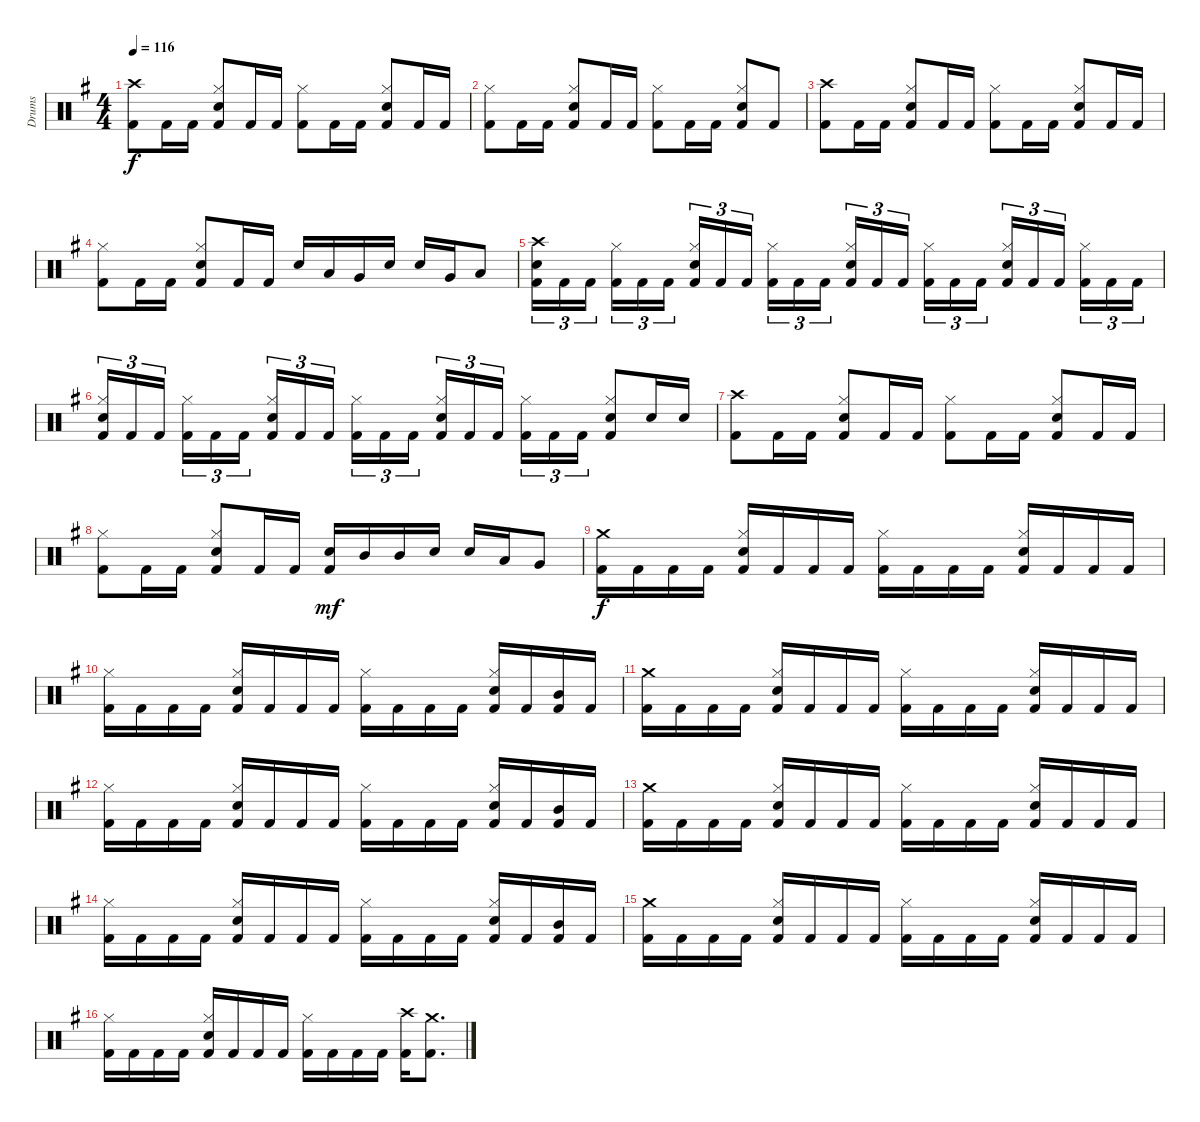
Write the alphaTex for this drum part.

\track ("Drums" "Drums") {instrument percussion}
\staff {score}
\articulation defaults
\ts (4 4)
\tempo 116
\clef neutral
\ks eminor
("Crash high (hit)" "Kick (hit) 2").8{dy f} "Kick (hit) 2".16 "Kick (hit) 2".16 ("Hi-Hat (closed)" "Snare (hit) 2" "Kick (hit) 2").8 "Kick (hit) 2".16 "Kick (hit) 2".16 ("Hi-Hat (closed)" "Kick (hit) 2").8 "Kick (hit) 2".16 "Kick (hit) 2".16 ("Hi-Hat (closed)" "Snare (hit) 2" "Kick (hit) 2").8 "Kick (hit) 2".16 "Kick (hit) 2".16 |
("Hi-Hat (closed)" "Kick (hit) 2").8 "Kick (hit) 2".16 "Kick (hit) 2".16 ("Hi-Hat (closed)" "Snare (hit) 2" "Kick (hit) 2").8 "Kick (hit) 2".16 "Kick (hit) 2".16 ("Hi-Hat (closed)" "Kick (hit) 2").8 "Kick (hit) 2".16 "Kick (hit) 2".16 ("Hi-Hat (closed)" "Snare (hit) 2" "Kick (hit) 2").8 "Kick (hit) 2".8 |
("Crash high (hit)" "Kick (hit) 2").8 "Kick (hit) 2".16 "Kick (hit) 2".16 ("Hi-Hat (closed)" "Snare (hit) 2" "Kick (hit) 2").8 "Kick (hit) 2".16 "Kick (hit) 2".16 ("Hi-Hat (closed)" "Kick (hit) 2").8 "Kick (hit) 2".16 "Kick (hit) 2".16 ("Hi-Hat (closed)" "Snare (hit) 2" "Kick (hit) 2").8 "Kick (hit) 2".16 "Kick (hit) 2".16 |
("Hi-Hat (closed)" "Kick (hit) 2").8 "Kick (hit) 2".16 "Kick (hit) 2".16 ("Hi-Hat (closed)" "Snare (hit) 2" "Kick (hit) 2").8 "Kick (hit) 2".16 "Kick (hit) 2".16 "Snare (hit) 2".16 "Low Tom (hit)".16 "Very Low Tom (hit)".16 "Snare (hit) 2".16 "Snare (hit) 2".16 "Very Low Tom (hit)".16 "Low Floor Tom (hit)".8 |
("Crash high (hit)" "Snare (hit) 2" "Kick (hit) 2").16{tu (3 2)} "Kick (hit) 2".16{tu (3 2)} "Kick (hit) 2".16{tu (3 2) beam splitsecondary} ("Hi-Hat (closed)" "Kick (hit) 2").16{tu (3 2)} "Kick (hit) 2".16{tu (3 2)} "Kick (hit) 2".16{tu (3 2)} ("Hi-Hat (closed)" "Snare (hit) 2" "Kick (hit) 2").16{tu (3 2)} "Kick (hit) 2".16{tu (3 2)} "Kick (hit) 2".16{tu (3 2) beam splitsecondary} ("Hi-Hat (closed)" "Kick (hit) 2").16{tu (3 2)} "Kick (hit) 2".16{tu (3 2)} "Kick (hit) 2".16{tu (3 2)} ("Hi-Hat (closed)" "Snare (hit) 2" "Kick (hit) 2").16{tu (3 2)} "Kick (hit) 2".16{tu (3 2)} "Kick (hit) 2".16{tu (3 2) beam splitsecondary} ("Hi-Hat (closed)" "Kick (hit) 2").16{tu (3 2)} "Kick (hit) 2".16{tu (3 2)} "Kick (hit) 2".16{tu (3 2)} ("Hi-Hat (closed)" "Snare (hit) 2" "Kick (hit) 2").16{tu (3 2)} "Kick (hit) 2".16{tu (3 2)} "Kick (hit) 2".16{tu (3 2) beam splitsecondary} ("Hi-Hat (closed)" "Kick (hit) 2").16{tu (3 2)} "Kick (hit) 2".16{tu (3 2)} "Kick (hit) 2".16{tu (3 2)} |
("Hi-Hat (closed)" "Snare (hit) 2" "Kick (hit) 2").16{tu (3 2)} "Kick (hit) 2".16{tu (3 2)} "Kick (hit) 2".16{tu (3 2) beam splitsecondary} ("Hi-Hat (closed)" "Kick (hit) 2").16{tu (3 2)} "Kick (hit) 2".16{tu (3 2)} "Kick (hit) 2".16{tu (3 2)} ("Hi-Hat (closed)" "Snare (hit) 2" "Kick (hit) 2").16{tu (3 2)} "Kick (hit) 2".16{tu (3 2)} "Kick (hit) 2".16{tu (3 2) beam splitsecondary} ("Hi-Hat (closed)" "Kick (hit) 2").16{tu (3 2)} "Kick (hit) 2".16{tu (3 2)} "Kick (hit) 2".16{tu (3 2)} ("Hi-Hat (closed)" "Snare (hit) 2" "Kick (hit) 2").16{tu (3 2)} "Kick (hit) 2".16{tu (3 2)} "Kick (hit) 2".16{tu (3 2) beam splitsecondary} ("Hi-Hat (closed)" "Kick (hit) 2").16{tu (3 2)} "Kick (hit) 2".16{tu (3 2)} "Kick (hit) 2".16{tu (3 2)} ("Hi-Hat (closed)" "Snare (hit) 2" "Kick (hit) 2").8 "Snare (hit) 2".16 "Snare (hit) 2".16 |
("Crash high (hit)" "Kick (hit) 2").8 "Kick (hit) 2".16 "Kick (hit) 2".16 ("Hi-Hat (closed)" "Snare (hit) 2" "Kick (hit) 2").8 "Kick (hit) 2".16 "Kick (hit) 2".16 ("Hi-Hat (closed)" "Kick (hit) 2").8 "Kick (hit) 2".16 "Kick (hit) 2".16 ("Hi-Hat (closed)" "Snare (hit) 2" "Kick (hit) 2").8 "Kick (hit) 2".16 "Kick (hit) 2".16 |
("Hi-Hat (closed)" "Kick (hit) 2").8 "Kick (hit) 2".16 "Kick (hit) 2".16 ("Hi-Hat (closed)" "Snare (hit) 2" "Kick (hit) 2").8 "Kick (hit) 2".16 "Kick (hit) 2".16 ("Snare (hit) 2" "Kick (hit) 2").16{dy mf} "Mid Tom (hit)".16 "Mid Tom (hit)".16 "Snare (hit) 2".16 "Snare (hit) 2".16 "Low Tom (hit)".16 "Very Low Tom (hit)".8 |
("Crash medium (hit)" "Kick (hit) 2").16{dy f} "Kick (hit) 2".16 "Kick (hit) 2".16 "Kick (hit) 2".16 ("Hi-Hat (closed)" "Snare (hit) 2" "Kick (hit) 2").16 "Kick (hit) 2".16 "Kick (hit) 2".16 "Kick (hit) 2".16 ("Hi-Hat (closed)" "Kick (hit) 2").16 "Kick (hit) 2".16 "Kick (hit) 2".16 "Kick (hit) 2".16 ("Hi-Hat (closed)" "Snare (hit) 2" "Kick (hit) 2").16 "Kick (hit) 2".16 "Kick (hit) 2".16 "Kick (hit) 2".16 |
("Hi-Hat (closed)" "Kick (hit) 2").16 "Kick (hit) 2".16 "Kick (hit) 2".16 "Kick (hit) 2".16 ("Hi-Hat (closed)" "Snare (hit) 2" "Kick (hit) 2").16 "Kick (hit) 2".16 "Kick (hit) 2".16 "Kick (hit) 2".16 ("Hi-Hat (closed)" "Kick (hit) 2").16 "Kick (hit) 2".16 "Kick (hit) 2".16 "Kick (hit) 2".16 ("Hi-Hat (closed)" "Snare (hit) 2" "Kick (hit) 2").16 "Kick (hit) 2".16 ("Mid Tom (hit)" "Kick (hit) 2").16 "Kick (hit) 2".16 |
("Crash medium (hit)" "Kick (hit) 2").16 "Kick (hit) 2".16 "Kick (hit) 2".16 "Kick (hit) 2".16 ("Hi-Hat (closed)" "Snare (hit) 2" "Kick (hit) 2").16 "Kick (hit) 2".16 "Kick (hit) 2".16 "Kick (hit) 2".16 ("Hi-Hat (closed)" "Kick (hit) 2").16 "Kick (hit) 2".16 "Kick (hit) 2".16 "Kick (hit) 2".16 ("Hi-Hat (closed)" "Snare (hit) 2" "Kick (hit) 2").16 "Kick (hit) 2".16 "Kick (hit) 2".16 "Kick (hit) 2".16 |
("Hi-Hat (closed)" "Kick (hit) 2").16 "Kick (hit) 2".16 "Kick (hit) 2".16 "Kick (hit) 2".16 ("Hi-Hat (closed)" "Snare (hit) 2" "Kick (hit) 2").16 "Kick (hit) 2".16 "Kick (hit) 2".16 "Kick (hit) 2".16 ("Hi-Hat (closed)" "Kick (hit) 2").16 "Kick (hit) 2".16 "Kick (hit) 2".16 "Kick (hit) 2".16 ("Hi-Hat (closed)" "Snare (hit) 2" "Kick (hit) 2").16 "Kick (hit) 2".16 ("Mid Tom (hit)" "Kick (hit) 2").16 "Kick (hit) 2".16 |
("Crash medium (hit)" "Kick (hit) 2").16 "Kick (hit) 2".16 "Kick (hit) 2".16 "Kick (hit) 2".16 ("Hi-Hat (closed)" "Snare (hit) 2" "Kick (hit) 2").16 "Kick (hit) 2".16 "Kick (hit) 2".16 "Kick (hit) 2".16 ("Hi-Hat (closed)" "Kick (hit) 2").16 "Kick (hit) 2".16 "Kick (hit) 2".16 "Kick (hit) 2".16 ("Hi-Hat (closed)" "Snare (hit) 2" "Kick (hit) 2").16 "Kick (hit) 2".16 "Kick (hit) 2".16 "Kick (hit) 2".16 |
("Hi-Hat (closed)" "Kick (hit) 2").16 "Kick (hit) 2".16 "Kick (hit) 2".16 "Kick (hit) 2".16 ("Hi-Hat (closed)" "Snare (hit) 2" "Kick (hit) 2").16 "Kick (hit) 2".16 "Kick (hit) 2".16 "Kick (hit) 2".16 ("Hi-Hat (closed)" "Kick (hit) 2").16 "Kick (hit) 2".16 "Kick (hit) 2".16 "Kick (hit) 2".16 ("Hi-Hat (closed)" "Snare (hit) 2" "Kick (hit) 2").16 "Kick (hit) 2".16 ("Mid Tom (hit)" "Kick (hit) 2").16 "Kick (hit) 2".16 |
("Crash medium (hit)" "Kick (hit) 2").16 "Kick (hit) 2".16 "Kick (hit) 2".16 "Kick (hit) 2".16 ("Hi-Hat (closed)" "Snare (hit) 2" "Kick (hit) 2").16 "Kick (hit) 2".16 "Kick (hit) 2".16 "Kick (hit) 2".16 ("Hi-Hat (closed)" "Kick (hit) 2").16 "Kick (hit) 2".16 "Kick (hit) 2".16 "Kick (hit) 2".16 ("Hi-Hat (closed)" "Snare (hit) 2" "Kick (hit) 2").16 "Kick (hit) 2".16 "Kick (hit) 2".16 "Kick (hit) 2".16 |
("Hi-Hat (closed)" "Kick (hit) 2").16 "Kick (hit) 2".16 "Kick (hit) 2".16 "Kick (hit) 2".16 ("Hi-Hat (closed)" "Snare (hit) 2" "Kick (hit) 2").16 "Kick (hit) 2".16 "Kick (hit) 2".16 "Kick (hit) 2".16 ("Hi-Hat (closed)" "Kick (hit) 2").16 "Kick (hit) 2".16 "Kick (hit) 2".16 "Kick (hit) 2".16 ("Crash high (hit)" "Kick (hit) 2").16 ("Crash medium (hit)" "Kick (hit) 2").8{d}
